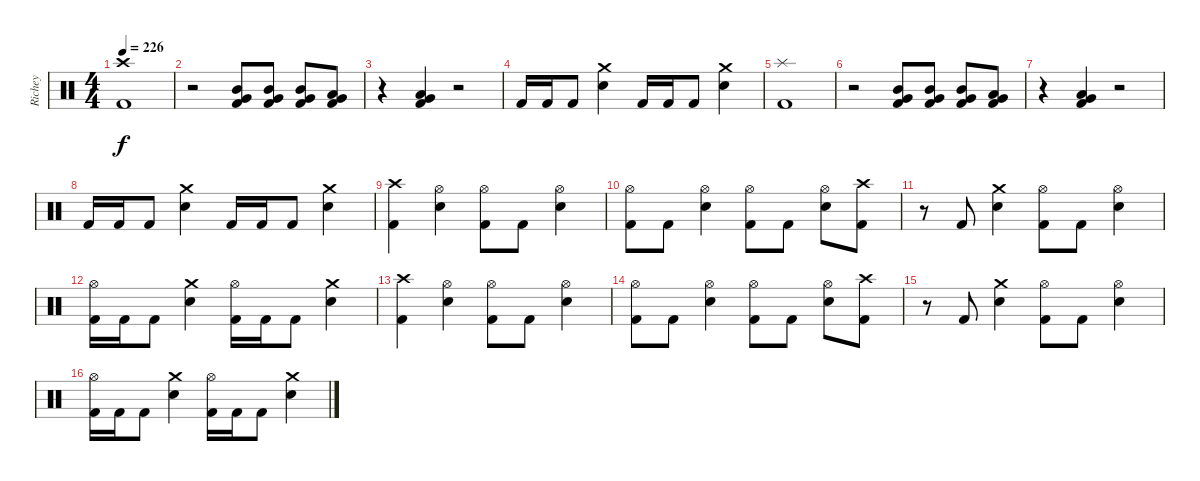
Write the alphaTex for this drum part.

\track ("Richey" "Richey") {instrument percussion}
\staff {score}
\articulation defaults
\ts (4 4)
\tempo 226
\clef neutral
\ks c
("Crash high (hit)" "Kick (hit) 2").1{dy f} |
r.2 ("Mid Tom (hit)" "Very Low Tom (hit)" "Kick (hit) 2").8 ("Mid Tom (hit)" "Very Low Tom (hit)" "Kick (hit) 2").8 ("Mid Tom (hit)" "Very Low Tom (hit)" "Kick (hit) 2").8 ("Low Tom (hit)" "Very Low Tom (hit)" "Kick (hit) 2").8 |
r.4 ("Low Tom (hit)" "Very Low Tom (hit)" "Kick (hit) 2").4 r.2 |
"Kick (hit) 2".16 "Kick (hit) 2".16 "Kick (hit) 2".8 ("Crash medium (hit)" "Snare (hit) 2").4 "Kick (hit) 2".16 "Kick (hit) 2".16 "Kick (hit) 2".8 ("Crash medium (hit)" "Snare (hit) 2").4 |
("Splash (hit)" "Kick (hit) 2").1 |
r.2 ("Mid Tom (hit)" "Very Low Tom (hit)" "Kick (hit) 2").8 ("Mid Tom (hit)" "Very Low Tom (hit)" "Kick (hit) 2").8 ("Mid Tom (hit)" "Very Low Tom (hit)" "Kick (hit) 2").8 ("Low Tom (hit)" "Very Low Tom (hit)" "Kick (hit) 2").8 |
r.4 ("Low Tom (hit)" "Very Low Tom (hit)" "Kick (hit) 2").4 r.2 |
"Kick (hit) 2".16 "Kick (hit) 2".16 "Kick (hit) 2".8 ("Crash medium (hit)" "Snare (hit) 2").4 "Kick (hit) 2".16 "Kick (hit) 2".16 "Kick (hit) 2".8 ("Crash medium (hit)" "Snare (hit) 2").4 |
("Crash high (hit)" "Kick (hit) 2").4 ("Hi-Hat (open)" "Snare (hit) 2").4 ("Hi-Hat (open)" "Kick (hit) 2").8 "Kick (hit) 2".8 ("Hi-Hat (open)" "Snare (hit) 2").4 |
("Hi-Hat (open)" "Kick (hit) 2").8 "Kick (hit) 2".8 ("Hi-Hat (open)" "Snare (hit) 2").4 ("Hi-Hat (open)" "Kick (hit) 2").8 "Kick (hit) 2".8 ("Hi-Hat (open)" "Snare (hit) 2").8 ("Crash high (hit)" "Kick (hit) 2").8 |
r.8 "Kick (hit) 2".8 ("Crash medium (hit)" "Snare (hit) 2").4 ("Hi-Hat (open)" "Kick (hit) 2").8 "Kick (hit) 2".8 ("Hi-Hat (open)" "Snare (hit) 2").4 |
("Hi-Hat (open)" "Kick (hit) 2").16 "Kick (hit) 2".16 "Kick (hit) 2".8 ("Crash medium (hit)" "Snare (hit) 2").4 ("Hi-Hat (open)" "Kick (hit) 2").16 "Kick (hit) 2".16 "Kick (hit) 2".8 ("Crash medium (hit)" "Snare (hit) 2").4 |
("Crash high (hit)" "Kick (hit) 2").4 ("Hi-Hat (open)" "Snare (hit) 2").4 ("Hi-Hat (open)" "Kick (hit) 2").8 "Kick (hit) 2".8 ("Hi-Hat (open)" "Snare (hit) 2").4 |
("Hi-Hat (open)" "Kick (hit) 2").8 "Kick (hit) 2".8 ("Hi-Hat (open)" "Snare (hit) 2").4 ("Hi-Hat (open)" "Kick (hit) 2").8 "Kick (hit) 2".8 ("Hi-Hat (open)" "Snare (hit) 2").8 ("Crash high (hit)" "Kick (hit) 2").8 |
r.8 "Kick (hit) 2".8 ("Crash medium (hit)" "Snare (hit) 2").4 ("Hi-Hat (open)" "Kick (hit) 2").8 "Kick (hit) 2".8 ("Hi-Hat (open)" "Snare (hit) 2").4 |
("Hi-Hat (open)" "Kick (hit) 2").16 "Kick (hit) 2".16 "Kick (hit) 2".8 ("Crash medium (hit)" "Snare (hit) 2").4 ("Hi-Hat (open)" "Kick (hit) 2").16 "Kick (hit) 2".16 "Kick (hit) 2".8 ("Crash medium (hit)" "Snare (hit) 2").4
